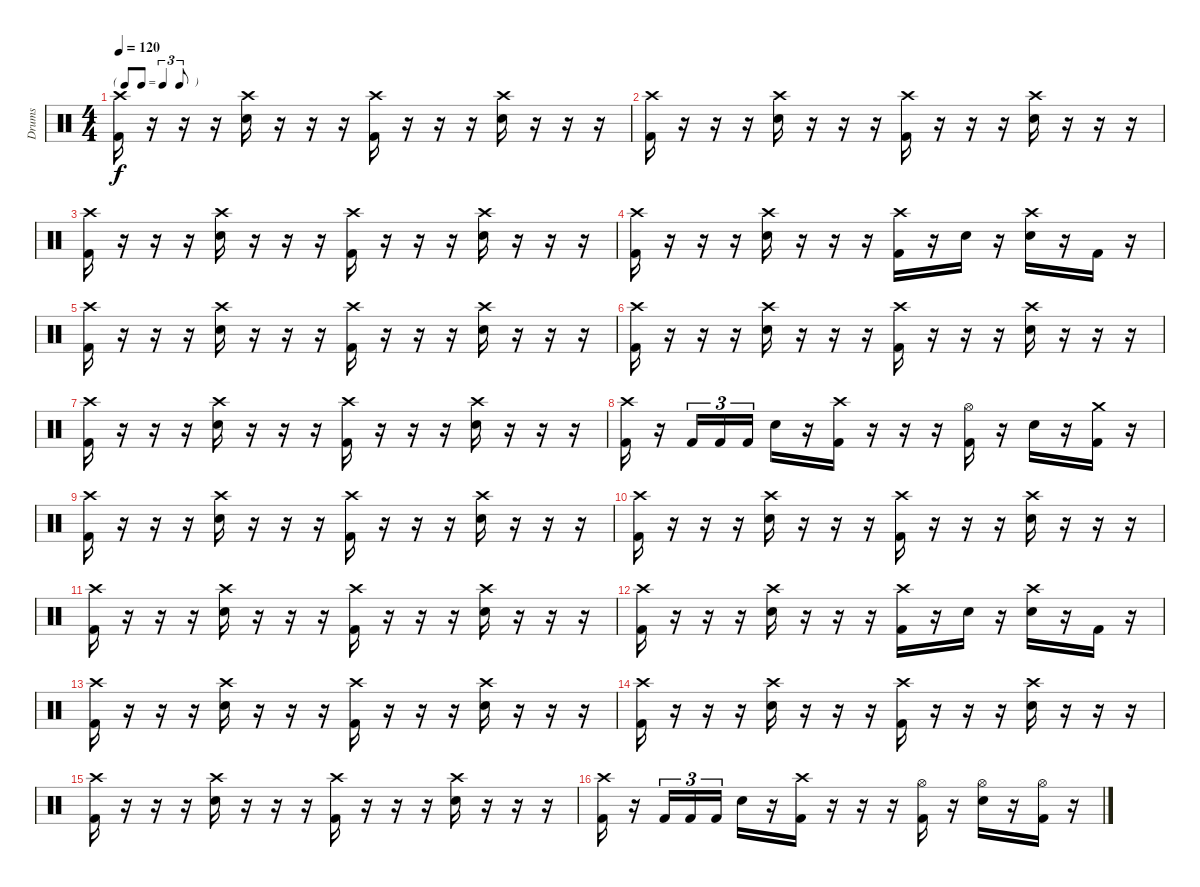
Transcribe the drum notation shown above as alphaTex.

\track ("Drums" "Drums") {instrument percussion}
\staff {score}
\articulation defaults
\ts (4 4)
\tf triplet8th
\tempo 120
\clef neutral
\ks c
("Crash high (hit)" "Kick (hit) 2").16{dy f} r.16 r.16 r.16 ("Crash high (hit)" "Electric Snare (hit)").16 r.16 r.16 r.16 ("Crash high (hit)" "Kick (hit) 2").16 r.16 r.16 r.16 ("Crash high (hit)" "Electric Snare (hit)").16 r.16 r.16 r.16 |
("Crash high (hit)" "Kick (hit) 2").16 r.16 r.16 r.16 ("Crash high (hit)" "Electric Snare (hit)").16 r.16 r.16 r.16 ("Crash high (hit)" "Kick (hit) 2").16 r.16 r.16 r.16 ("Crash high (hit)" "Electric Snare (hit)").16 r.16 r.16 r.16 |
("Crash high (hit)" "Kick (hit) 2").16 r.16 r.16 r.16 ("Crash high (hit)" "Electric Snare (hit)").16 r.16 r.16 r.16 ("Crash high (hit)" "Kick (hit) 2").16 r.16 r.16 r.16 ("Crash high (hit)" "Electric Snare (hit)").16 r.16 r.16 r.16 |
("Crash high (hit)" "Kick (hit) 2").16 r.16 r.16 r.16 ("Crash high (hit)" "Electric Snare (hit)").16 r.16 r.16 r.16 ("Crash high (hit)" "Kick (hit) 2").16 r.16 "Electric Snare (hit)".16 r.16 ("Crash high (hit)" "Electric Snare (hit)").16 r.16 "Kick (hit) 2".16 r.16 |
("Crash high (hit)" "Kick (hit) 2").16 r.16 r.16 r.16 ("Crash high (hit)" "Electric Snare (hit)").16 r.16 r.16 r.16 ("Crash high (hit)" "Kick (hit) 2").16 r.16 r.16 r.16 ("Crash high (hit)" "Electric Snare (hit)").16 r.16 r.16 r.16 |
("Crash high (hit)" "Kick (hit) 2").16 r.16 r.16 r.16 ("Crash high (hit)" "Electric Snare (hit)").16 r.16 r.16 r.16 ("Crash high (hit)" "Kick (hit) 2").16 r.16 r.16 r.16 ("Crash high (hit)" "Electric Snare (hit)").16 r.16 r.16 r.16 |
("Crash high (hit)" "Kick (hit) 2").16 r.16 r.16 r.16 ("Crash high (hit)" "Electric Snare (hit)").16 r.16 r.16 r.16 ("Crash high (hit)" "Kick (hit) 2").16 r.16 r.16 r.16 ("Crash high (hit)" "Electric Snare (hit)").16 r.16 r.16 r.16 |
("Crash high (hit)" "Kick (hit) 2").16 r.16 "Kick (hit) 2".16{tu (3 2)} "Kick (hit) 2".16{tu (3 2)} "Kick (hit) 2".16{tu (3 2)} "Electric Snare (hit)".16 r.16 ("Crash high (hit)" "Kick (hit) 2").16 r.16 r.16 r.16 ("Hi-Hat (open)" "Kick (hit) 2").16 r.16 "Electric Snare (hit)".16 r.16 ("Crash medium (hit)" "Kick (hit) 2").16 r.16 |
("Crash high (hit)" "Kick (hit) 2").16 r.16 r.16 r.16 ("Crash high (hit)" "Electric Snare (hit)").16 r.16 r.16 r.16 ("Crash high (hit)" "Kick (hit) 2").16 r.16 r.16 r.16 ("Crash high (hit)" "Electric Snare (hit)").16 r.16 r.16 r.16 |
("Crash high (hit)" "Kick (hit) 2").16 r.16 r.16 r.16 ("Crash high (hit)" "Electric Snare (hit)").16 r.16 r.16 r.16 ("Crash high (hit)" "Kick (hit) 2").16 r.16 r.16 r.16 ("Crash high (hit)" "Electric Snare (hit)").16 r.16 r.16 r.16 |
("Crash high (hit)" "Kick (hit) 2").16 r.16 r.16 r.16 ("Crash high (hit)" "Electric Snare (hit)").16 r.16 r.16 r.16 ("Crash high (hit)" "Kick (hit) 2").16 r.16 r.16 r.16 ("Crash high (hit)" "Electric Snare (hit)").16 r.16 r.16 r.16 |
("Crash high (hit)" "Kick (hit) 2").16 r.16 r.16 r.16 ("Crash high (hit)" "Electric Snare (hit)").16 r.16 r.16 r.16 ("Crash high (hit)" "Kick (hit) 2").16 r.16 "Electric Snare (hit)".16 r.16 ("Crash high (hit)" "Electric Snare (hit)").16 r.16 "Kick (hit) 2".16 r.16 |
("Crash high (hit)" "Kick (hit) 2").16 r.16 r.16 r.16 ("Crash high (hit)" "Electric Snare (hit)").16 r.16 r.16 r.16 ("Crash high (hit)" "Kick (hit) 2").16 r.16 r.16 r.16 ("Crash high (hit)" "Electric Snare (hit)").16 r.16 r.16 r.16 |
("Crash high (hit)" "Kick (hit) 2").16 r.16 r.16 r.16 ("Crash high (hit)" "Electric Snare (hit)").16 r.16 r.16 r.16 ("Crash high (hit)" "Kick (hit) 2").16 r.16 r.16 r.16 ("Crash high (hit)" "Electric Snare (hit)").16 r.16 r.16 r.16 |
("Crash high (hit)" "Kick (hit) 2").16 r.16 r.16 r.16 ("Crash high (hit)" "Electric Snare (hit)").16 r.16 r.16 r.16 ("Crash high (hit)" "Kick (hit) 2").16 r.16 r.16 r.16 ("Crash high (hit)" "Electric Snare (hit)").16 r.16 r.16 r.16 |
("Crash high (hit)" "Kick (hit) 2").16 r.16 "Kick (hit) 2".16{tu (3 2)} "Kick (hit) 2".16{tu (3 2)} "Kick (hit) 2".16{tu (3 2)} "Electric Snare (hit)".16 r.16 ("Crash high (hit)" "Kick (hit) 2").16 r.16 r.16 r.16 ("Hi-Hat (open)" "Kick (hit) 2").16 r.16 ("Hi-Hat (open)" "Electric Snare (hit)").16 r.16 ("Hi-Hat (open)" "Kick (hit) 2").16 r.16
